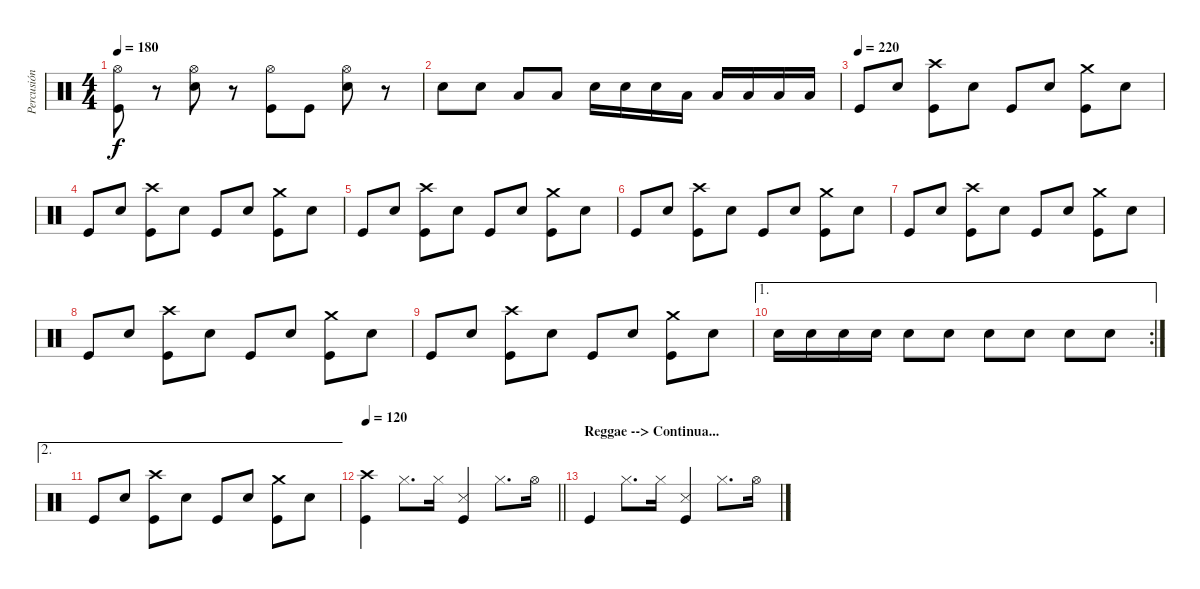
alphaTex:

\track ("Percusión" "Percusión") {instrument percussion}
\staff {score}
\articulation defaults
\ts (4 4)
\tempo 180
\clef neutral
\ks c
("Kick (hit)" "Hi-Hat (open)").8{dy f} r.8 ("Snare (hit) 2" "Hi-Hat (open)").8 r.8 ("Kick (hit)" "Hi-Hat (open)").8 "Kick (hit)".8 ("Snare (hit) 2" "Hi-Hat (open)").8 r.8 |
"Snare (hit) 2".8 "Snare (hit) 2".8 "Low Floor Tom (hit)".8 "Low Floor Tom (hit)".8 "Snare (hit) 2".16 "Snare (hit) 2".16 "Snare (hit) 2".16 "Low Tom (hit)".16 "Low Tom (hit)".16 "Low Floor Tom (hit)".16 "Low Floor Tom (hit)".16 "Low Floor Tom (hit)".16 |
\tempo (220)
"Kick (hit)".8 "Snare (hit) 2".8 ("Kick (hit)" "Crash high (hit)").8 "Snare (hit) 2".8 "Kick (hit)".8 "Snare (hit) 2".8 ("Kick (hit)" "Crash medium (hit)").8 "Snare (hit) 2".8 |
"Kick (hit)".8 "Snare (hit) 2".8 ("Kick (hit)" "Crash high (hit)").8 "Snare (hit) 2".8 "Kick (hit)".8 "Snare (hit) 2".8 ("Kick (hit)" "Crash medium (hit)").8 "Snare (hit) 2".8 |
"Kick (hit)".8 "Snare (hit) 2".8 ("Kick (hit)" "Crash high (hit)").8 "Snare (hit) 2".8 "Kick (hit)".8 "Snare (hit) 2".8 ("Kick (hit)" "Crash medium (hit)").8 "Snare (hit) 2".8 |
"Kick (hit)".8 "Snare (hit) 2".8 ("Kick (hit)" "Crash high (hit)").8 "Snare (hit) 2".8 "Kick (hit)".8 "Snare (hit) 2".8 ("Kick (hit)" "Crash medium (hit)").8 "Snare (hit) 2".8 |
"Kick (hit)".8 "Snare (hit) 2".8 ("Kick (hit)" "Crash high (hit)").8 "Snare (hit) 2".8 "Kick (hit)".8 "Snare (hit) 2".8 ("Kick (hit)" "Crash medium (hit)").8 "Snare (hit) 2".8 |
"Kick (hit)".8 "Snare (hit) 2".8 ("Kick (hit)" "Crash high (hit)").8 "Snare (hit) 2".8 "Kick (hit)".8 "Snare (hit) 2".8 ("Kick (hit)" "Crash medium (hit)").8 "Snare (hit) 2".8 |
"Kick (hit)".8 "Snare (hit) 2".8 ("Kick (hit)" "Crash high (hit)").8 "Snare (hit) 2".8 "Kick (hit)".8 "Snare (hit) 2".8 ("Kick (hit)" "Crash medium (hit)").8 "Snare (hit) 2".8 |
\ae 1
\rc 2 "Snare (hit) 2".16 "Snare (hit) 2".16 "Snare (hit) 2".16 "Snare (hit) 2".16 "Snare (hit) 2".8 "Snare (hit) 2".8 "Snare (hit) 2".8 "Snare (hit) 2".8 "Snare (hit) 2".8 "Snare (hit) 2".8
|
\ae 2 "Kick (hit)".8 "Snare (hit) 2".8
("Kick (hit)" "Crash high (hit)").8 "Snare (hit) 2".8 "Kick (hit)".8 "Snare (hit) 2".8 ("Kick (hit)" "Crash medium (hit)").8 "Snare (hit) 2".8 |
\tempo 120
\barLineRight lightlight
("Kick (hit)" "Crash high (hit)").4 "Hi-Hat (closed)".8{d} "Hi-Hat (closed)".16 ("Kick (hit)" "Snare (side stick) 3").4 "Hi-Hat (closed)".8{d} "Hi-Hat (open)".16 |
\section ("" "Reggae --> Continua...")
"Kick (hit)".4 "Hi-Hat (closed)".8{d} "Hi-Hat (closed)".16 ("Kick (hit)" "Snare (side stick) 3").4 "Hi-Hat (closed)".8{d} "Hi-Hat (open)".16
